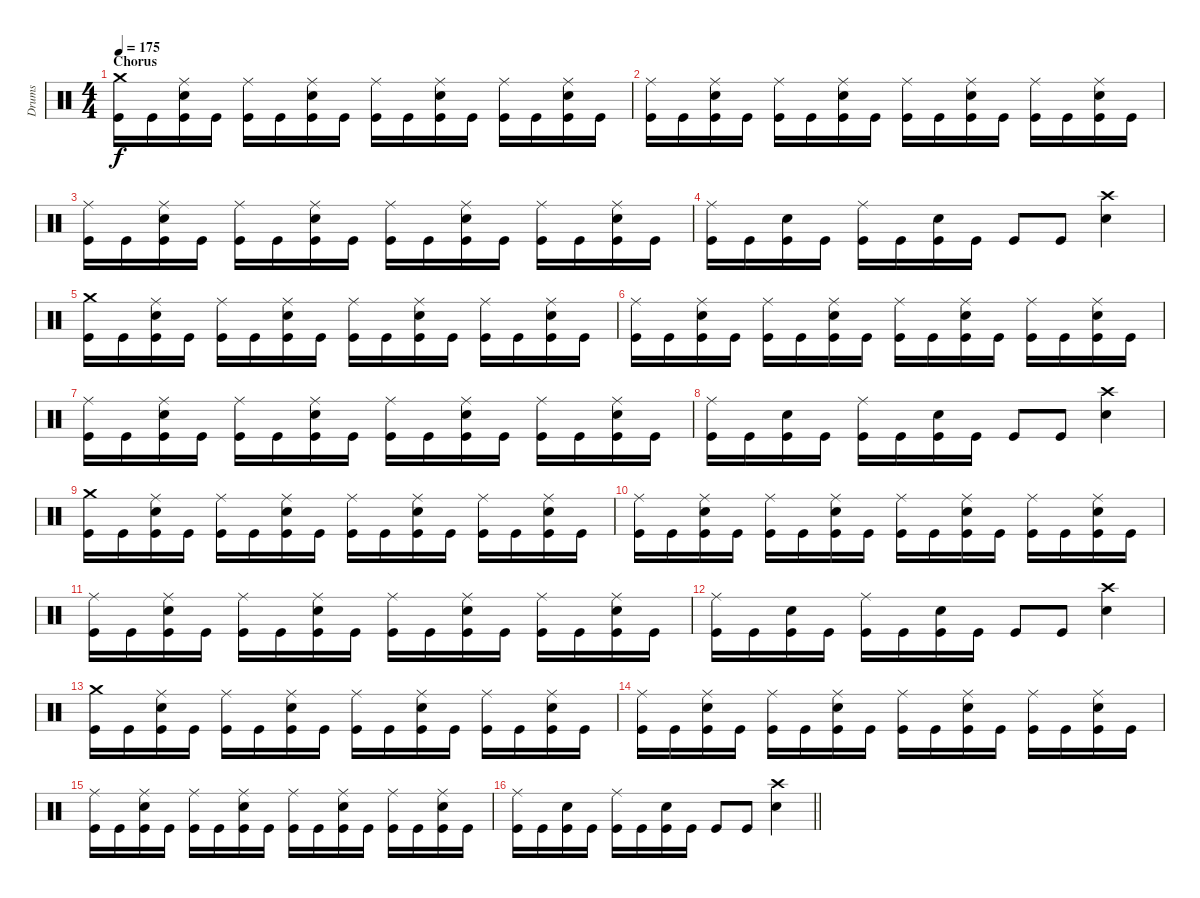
\track ("Drums" "Drums") {instrument percussion}
\staff {score}
\articulation defaults
\ts (4 4)
\section ("" "Chorus")
\tempo 175
\clef neutral
\ks c
("Crash medium (hit)" "Kick (hit)").16{dy f} "Kick (hit)".16 ("Ride (middle)" "Snare (hit) 2" "Kick (hit)").16 "Kick (hit)".16 ("Ride (middle)" "Kick (hit)").16 "Kick (hit)".16 ("Ride (middle)" "Snare (hit) 2" "Kick (hit)").16 "Kick (hit)".16 ("Ride (middle)" "Kick (hit)").16 "Kick (hit)".16 ("Ride (middle)" "Snare (hit) 2" "Kick (hit)").16 "Kick (hit)".16 ("Ride (middle)" "Kick (hit)").16 "Kick (hit)".16 ("Ride (middle)" "Snare (hit) 2" "Kick (hit)").16 "Kick (hit)".16 |
("Ride (middle)" "Kick (hit)").16 "Kick (hit)".16 ("Ride (middle)" "Snare (hit) 2" "Kick (hit)").16 "Kick (hit)".16 ("Ride (middle)" "Kick (hit)").16 "Kick (hit)".16 ("Ride (middle)" "Snare (hit) 2" "Kick (hit)").16 "Kick (hit)".16 ("Ride (middle)" "Kick (hit)").16 "Kick (hit)".16 ("Ride (middle)" "Snare (hit) 2" "Kick (hit)").16 "Kick (hit)".16 ("Ride (middle)" "Kick (hit)").16 "Kick (hit)".16 ("Ride (middle)" "Snare (hit) 2" "Kick (hit)").16 "Kick (hit)".16 |
("Ride (middle)" "Kick (hit)").16 "Kick (hit)".16 ("Ride (middle)" "Snare (hit) 2" "Kick (hit)").16 "Kick (hit)".16 ("Ride (middle)" "Kick (hit)").16 "Kick (hit)".16 ("Ride (middle)" "Snare (hit) 2" "Kick (hit)").16 "Kick (hit)".16 ("Ride (middle)" "Kick (hit)").16 "Kick (hit)".16 ("Ride (middle)" "Snare (hit) 2" "Kick (hit)").16 "Kick (hit)".16 ("Ride (middle)" "Kick (hit)").16 "Kick (hit)".16 ("Ride (middle)" "Snare (hit) 2" "Kick (hit)").16 "Kick (hit)".16 |
("Ride (middle)" "Kick (hit)").16 "Kick (hit)".16 ("Snare (hit) 2" "Kick (hit)").16 "Kick (hit)".16 ("Ride (middle)" "Kick (hit)").16 "Kick (hit)".16 ("Snare (hit) 2" "Kick (hit)").16 "Kick (hit)".16 "Kick (hit)".8 "Kick (hit)".8 ("Crash high (hit)" "Snare (hit) 2").4 |
("Crash medium (hit)" "Kick (hit)").16 "Kick (hit)".16 ("Ride (middle)" "Snare (hit) 2" "Kick (hit)").16 "Kick (hit)".16 ("Ride (middle)" "Kick (hit)").16 "Kick (hit)".16 ("Ride (middle)" "Snare (hit) 2" "Kick (hit)").16 "Kick (hit)".16 ("Ride (middle)" "Kick (hit)").16 "Kick (hit)".16 ("Ride (middle)" "Snare (hit) 2" "Kick (hit)").16 "Kick (hit)".16 ("Ride (middle)" "Kick (hit)").16 "Kick (hit)".16 ("Ride (middle)" "Snare (hit) 2" "Kick (hit)").16 "Kick (hit)".16 |
("Ride (middle)" "Kick (hit)").16 "Kick (hit)".16 ("Ride (middle)" "Snare (hit) 2" "Kick (hit)").16 "Kick (hit)".16 ("Ride (middle)" "Kick (hit)").16 "Kick (hit)".16 ("Ride (middle)" "Snare (hit) 2" "Kick (hit)").16 "Kick (hit)".16 ("Ride (middle)" "Kick (hit)").16 "Kick (hit)".16 ("Ride (middle)" "Snare (hit) 2" "Kick (hit)").16 "Kick (hit)".16 ("Ride (middle)" "Kick (hit)").16 "Kick (hit)".16 ("Ride (middle)" "Snare (hit) 2" "Kick (hit)").16 "Kick (hit)".16 |
("Ride (middle)" "Kick (hit)").16 "Kick (hit)".16 ("Ride (middle)" "Snare (hit) 2" "Kick (hit)").16 "Kick (hit)".16 ("Ride (middle)" "Kick (hit)").16 "Kick (hit)".16 ("Ride (middle)" "Snare (hit) 2" "Kick (hit)").16 "Kick (hit)".16 ("Ride (middle)" "Kick (hit)").16 "Kick (hit)".16 ("Ride (middle)" "Snare (hit) 2" "Kick (hit)").16 "Kick (hit)".16 ("Ride (middle)" "Kick (hit)").16 "Kick (hit)".16 ("Ride (middle)" "Snare (hit) 2" "Kick (hit)").16 "Kick (hit)".16 |
("Ride (middle)" "Kick (hit)").16 "Kick (hit)".16 ("Snare (hit) 2" "Kick (hit)").16 "Kick (hit)".16 ("Ride (middle)" "Kick (hit)").16 "Kick (hit)".16 ("Snare (hit) 2" "Kick (hit)").16 "Kick (hit)".16 "Kick (hit)".8 "Kick (hit)".8 ("Crash high (hit)" "Snare (hit) 2").4 |
("Crash medium (hit)" "Kick (hit)").16 "Kick (hit)".16 ("Ride (middle)" "Snare (hit) 2" "Kick (hit)").16 "Kick (hit)".16 ("Ride (middle)" "Kick (hit)").16 "Kick (hit)".16 ("Ride (middle)" "Snare (hit) 2" "Kick (hit)").16 "Kick (hit)".16 ("Ride (middle)" "Kick (hit)").16 "Kick (hit)".16 ("Ride (middle)" "Snare (hit) 2" "Kick (hit)").16 "Kick (hit)".16 ("Ride (middle)" "Kick (hit)").16 "Kick (hit)".16 ("Ride (middle)" "Snare (hit) 2" "Kick (hit)").16 "Kick (hit)".16 |
("Ride (middle)" "Kick (hit)").16 "Kick (hit)".16 ("Ride (middle)" "Snare (hit) 2" "Kick (hit)").16 "Kick (hit)".16 ("Ride (middle)" "Kick (hit)").16 "Kick (hit)".16 ("Ride (middle)" "Snare (hit) 2" "Kick (hit)").16 "Kick (hit)".16 ("Ride (middle)" "Kick (hit)").16 "Kick (hit)".16 ("Ride (middle)" "Snare (hit) 2" "Kick (hit)").16 "Kick (hit)".16 ("Ride (middle)" "Kick (hit)").16 "Kick (hit)".16 ("Ride (middle)" "Snare (hit) 2" "Kick (hit)").16 "Kick (hit)".16 |
("Ride (middle)" "Kick (hit)").16 "Kick (hit)".16 ("Ride (middle)" "Snare (hit) 2" "Kick (hit)").16 "Kick (hit)".16 ("Ride (middle)" "Kick (hit)").16 "Kick (hit)".16 ("Ride (middle)" "Snare (hit) 2" "Kick (hit)").16 "Kick (hit)".16 ("Ride (middle)" "Kick (hit)").16 "Kick (hit)".16 ("Ride (middle)" "Snare (hit) 2" "Kick (hit)").16 "Kick (hit)".16 ("Ride (middle)" "Kick (hit)").16 "Kick (hit)".16 ("Ride (middle)" "Snare (hit) 2" "Kick (hit)").16 "Kick (hit)".16 |
("Ride (middle)" "Kick (hit)").16 "Kick (hit)".16 ("Snare (hit) 2" "Kick (hit)").16 "Kick (hit)".16 ("Ride (middle)" "Kick (hit)").16 "Kick (hit)".16 ("Snare (hit) 2" "Kick (hit)").16 "Kick (hit)".16 "Kick (hit)".8 "Kick (hit)".8 ("Crash high (hit)" "Snare (hit) 2").4 |
("Crash medium (hit)" "Kick (hit)").16 "Kick (hit)".16 ("Ride (middle)" "Snare (hit) 2" "Kick (hit)").16 "Kick (hit)".16 ("Ride (middle)" "Kick (hit)").16 "Kick (hit)".16 ("Ride (middle)" "Snare (hit) 2" "Kick (hit)").16 "Kick (hit)".16 ("Ride (middle)" "Kick (hit)").16 "Kick (hit)".16 ("Ride (middle)" "Snare (hit) 2" "Kick (hit)").16 "Kick (hit)".16 ("Ride (middle)" "Kick (hit)").16 "Kick (hit)".16 ("Ride (middle)" "Snare (hit) 2" "Kick (hit)").16 "Kick (hit)".16 |
("Ride (middle)" "Kick (hit)").16 "Kick (hit)".16 ("Ride (middle)" "Snare (hit) 2" "Kick (hit)").16 "Kick (hit)".16 ("Ride (middle)" "Kick (hit)").16 "Kick (hit)".16 ("Ride (middle)" "Snare (hit) 2" "Kick (hit)").16 "Kick (hit)".16 ("Ride (middle)" "Kick (hit)").16 "Kick (hit)".16 ("Ride (middle)" "Snare (hit) 2" "Kick (hit)").16 "Kick (hit)".16 ("Ride (middle)" "Kick (hit)").16 "Kick (hit)".16 ("Ride (middle)" "Snare (hit) 2" "Kick (hit)").16 "Kick (hit)".16 |
("Ride (middle)" "Kick (hit)").16 "Kick (hit)".16 ("Ride (middle)" "Snare (hit) 2" "Kick (hit)").16 "Kick (hit)".16 ("Ride (middle)" "Kick (hit)").16 "Kick (hit)".16 ("Ride (middle)" "Snare (hit) 2" "Kick (hit)").16 "Kick (hit)".16 ("Ride (middle)" "Kick (hit)").16 "Kick (hit)".16 ("Ride (middle)" "Snare (hit) 2" "Kick (hit)").16 "Kick (hit)".16 ("Ride (middle)" "Kick (hit)").16 "Kick (hit)".16 ("Ride (middle)" "Snare (hit) 2" "Kick (hit)").16 "Kick (hit)".16 |
\barLineRight lightlight
("Ride (middle)" "Kick (hit)").16 "Kick (hit)".16 ("Snare (hit) 2" "Kick (hit)").16 "Kick (hit)".16 ("Ride (middle)" "Kick (hit)").16 "Kick (hit)".16 ("Snare (hit) 2" "Kick (hit)").16 "Kick (hit)".16 "Kick (hit)".8 "Kick (hit)".8 ("Crash high (hit)" "Snare (hit) 2").4
